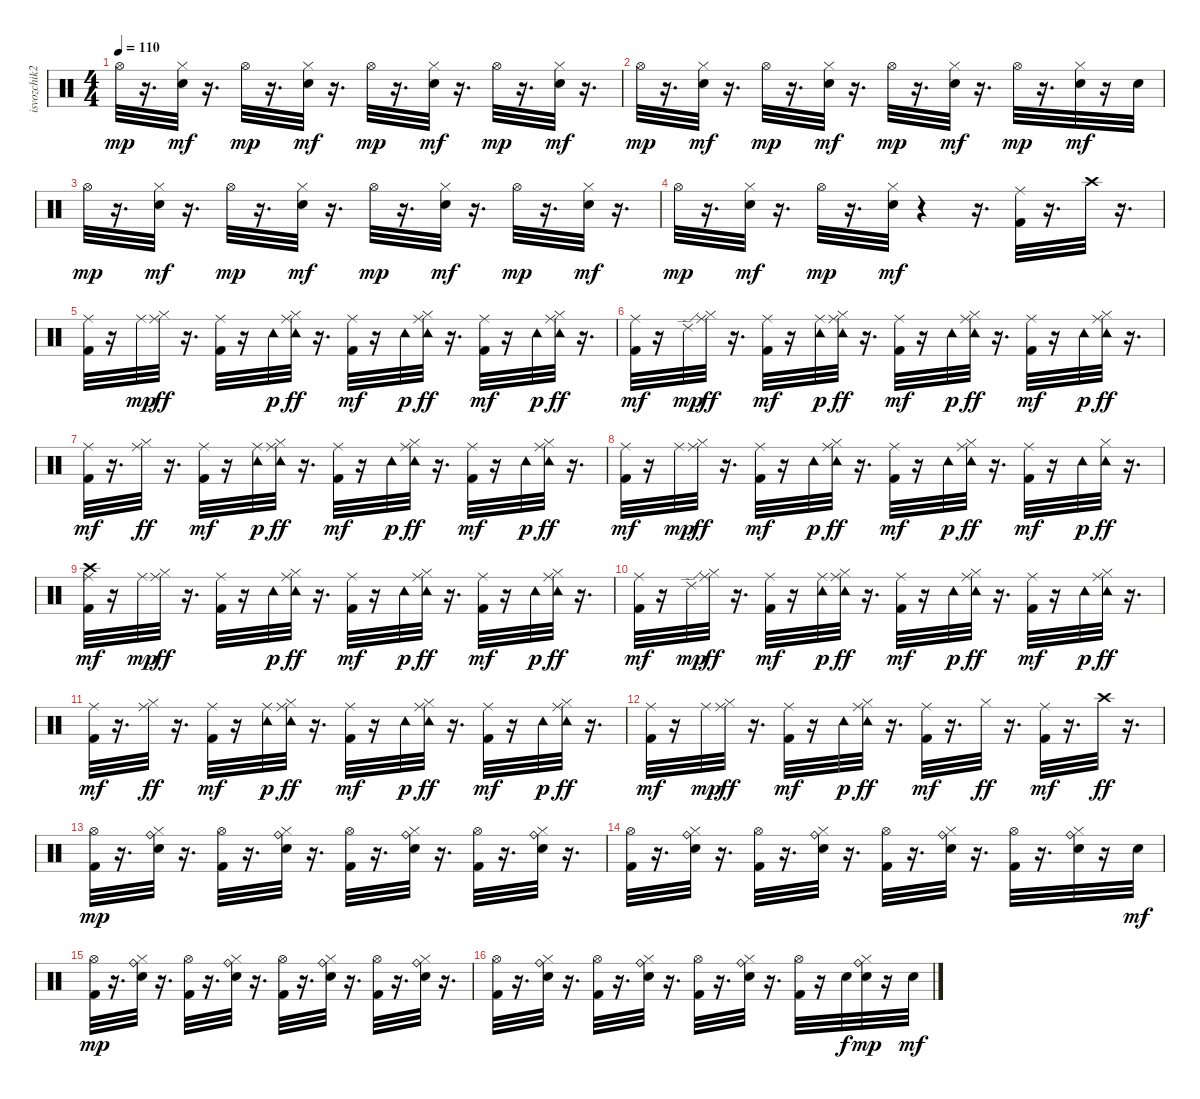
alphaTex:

\track ("isvozchik2" "isvozchik2") {instrument percussion}
\staff {score}
\articulation defaults
\ts (4 4)
\tempo 110
\clef neutral
\ks c "Hi-Hat (open)".32{dy mp}
r.16{d} ("Hand Clap (hit)" "Hi-Hat (closed)").32{dy mf} r.16{d} "Hi-Hat (open)".32{dy mp} r.16{d} ("Hand Clap (hit)" "Hi-Hat (closed)").32{dy mf} r.16{d} "Hi-Hat (open)".32{dy mp} r.16{d} ("Hand Clap (hit)" "Hi-Hat (closed)").32{dy mf} r.16{d} "Hi-Hat (open)".32{dy mp} r.16{d} ("Hand Clap (hit)" "Hi-Hat (closed)").32{dy mf} r.16{d} |
"Hi-Hat (open)".32{dy mp} r.16{d} ("Hand Clap (hit)" "Hi-Hat (closed)").32{dy mf} r.16{d} "Hi-Hat (open)".32{dy mp} r.16{d} ("Hand Clap (hit)" "Hi-Hat (closed)").32{dy mf} r.16{d} "Hi-Hat (open)".32{dy mp} r.16{d} ("Hand Clap (hit)" "Hi-Hat (closed)").32{dy mf} r.16{d} "Hi-Hat (open)".32{dy mp} r.16{d} ("Hand Clap (hit)" "Hi-Hat (closed)").32{dy mf} r.16 "Hand Clap (hit)".32 |
"Hi-Hat (open)".32{dy mp} r.16{d} ("Hand Clap (hit)" "Hi-Hat (closed)").32{dy mf} r.16{d} "Hi-Hat (open)".32{dy mp} r.16{d} ("Hand Clap (hit)" "Hi-Hat (closed)").32{dy mf} r.16{d} "Hi-Hat (open)".32{dy mp} r.16{d} ("Hand Clap (hit)" "Hi-Hat (closed)").32{dy mf} r.16{d} "Hi-Hat (open)".32{dy mp} r.16{d} ("Hand Clap (hit)" "Hi-Hat (closed)").32{dy mf} r.16{d} |
"Hi-Hat (open)".32{dy mp} r.16{d} ("Hand Clap (hit)" "Hi-Hat (closed)").32{dy mf} r.16{d} "Hi-Hat (open)".32{dy mp} r.16{d} ("Hand Clap (hit)" "Hi-Hat (closed)").32{dy mf} r.4 r.16{d} ("Kick (hit) 2" "Ride (middle)").32 r.16{d} "Crash high (hit)".32 r.16{d} |
("Kick (hit) 2" "Ride (middle)").32 r.16 "Ride (middle)".32{dy mp} ("Ride (middle)" "Hi-Hat (closed)").32{dy ff} r.16{d} ("Kick (hit) 2" "Ride (middle)").32 r.16 "Tambourine (hit)".32{dy p} ("Ride (middle)" "Tambourine (hit)" "Hi-Hat (closed)").32{dy ff} r.16{d} ("Kick (hit) 2" "Ride (middle)").32{dy mf} r.16 "Tambourine (hit)".32{dy p} ("Ride (middle)" "Tambourine (hit)" "Hi-Hat (closed)").32{dy ff} r.16{d} ("Kick (hit) 2" "Ride (middle)").32{dy mf} r.16 "Tambourine (hit)".32{dy p} ("Ride (middle)" "Tambourine (hit)" "Hi-Hat (closed)").32{dy ff} r.16{d} |
("Kick (hit) 2" "Ride (middle)").32{dy mf} r.16 "Ride (edge) 2".32{dy mp} ("Ride (middle)" "Hi-Hat (closed)").32{dy ff} r.16{d} ("Kick (hit) 2" "Ride (middle)").32{dy mf} r.16 ("Ride (middle)" "Tambourine (hit)").32{dy p} ("Ride (middle)" "Tambourine (hit)" "Hi-Hat (closed)").32{dy ff} r.16{d} ("Kick (hit) 2" "Ride (middle)").32{dy mf} r.16 "Tambourine (hit)".32{dy p} ("Ride (middle)" "Tambourine (hit)" "Hi-Hat (closed)").32{dy ff} r.16{d} ("Kick (hit) 2" "Ride (middle)").32{dy mf} r.16 "Tambourine (hit)".32{dy p} ("Ride (middle)" "Tambourine (hit)" "Hi-Hat (closed)").32{dy ff} r.16{d} |
("Kick (hit) 2" "Ride (middle)").32{dy mf} r.16{d} ("Ride (middle)" "Hi-Hat (closed)").32{dy ff} r.16{d} ("Kick (hit) 2" "Ride (middle)").32{dy mf} r.16 ("Ride (middle)" "Tambourine (hit)").32{dy p} ("Ride (middle)" "Tambourine (hit)" "Hi-Hat (closed)").32{dy ff} r.16{d} ("Kick (hit) 2" "Ride (middle)").32{dy mf} r.16 "Tambourine (hit)".32{dy p} ("Ride (middle)" "Tambourine (hit)" "Hi-Hat (closed)").32{dy ff} r.16{d} ("Kick (hit) 2" "Ride (middle)").32{dy mf} r.16 "Tambourine (hit)".32{dy p} ("Ride (middle)" "Tambourine (hit)" "Hi-Hat (closed)").32{dy ff} r.16{d} |
("Kick (hit) 2" "Ride (middle)").32{dy mf} r.16 "Ride (middle)".32{dy mp} ("Ride (middle)" "Hi-Hat (closed)").32{dy ff} r.16{d} ("Kick (hit) 2" "Ride (middle)").32{dy mf} r.16 "Tambourine (hit)".32{dy p} ("Ride (middle)" "Tambourine (hit)" "Hi-Hat (closed)").32{dy ff} r.16{d} ("Kick (hit) 2" "Ride (middle)").32{dy mf} r.16 "Tambourine (hit)".32{dy p} ("Ride (middle)" "Tambourine (hit)" "Hi-Hat (closed)").32{dy ff} r.16{d} ("Kick (hit) 2" "Ride (middle)").32{dy mf} r.16 "Tambourine (hit)".32{dy p} ("Tambourine (hit)" "Hi-Hat (closed)").32{dy ff} r.16{d} |
("Crash high (hit)" "Kick (hit) 2" "Ride (middle)").32{dy mf} r.16 "Ride (middle)".32{dy mp} ("Ride (middle)" "Hi-Hat (closed)").32{dy ff} r.16{d} ("Kick (hit) 2" "Ride (middle)").32 r.16 "Tambourine (hit)".32{dy p} ("Ride (middle)" "Tambourine (hit)" "Hi-Hat (closed)").32{dy ff} r.16{d} ("Kick (hit) 2" "Ride (middle)").32{dy mf} r.16 "Tambourine (hit)".32{dy p} ("Ride (middle)" "Tambourine (hit)" "Hi-Hat (closed)").32{dy ff} r.16{d} ("Kick (hit) 2" "Ride (middle)").32{dy mf} r.16 "Tambourine (hit)".32{dy p} ("Ride (middle)" "Tambourine (hit)" "Hi-Hat (closed)").32{dy ff} r.16{d} |
("Kick (hit) 2" "Ride (middle)").32{dy mf} r.16 "Ride (edge) 2".32{dy mp} ("Ride (middle)" "Hi-Hat (closed)").32{dy ff} r.16{d} ("Kick (hit) 2" "Ride (middle)").32{dy mf} r.16 ("Ride (middle)" "Tambourine (hit)").32{dy p} ("Ride (middle)" "Tambourine (hit)" "Hi-Hat (closed)").32{dy ff} r.16{d} ("Kick (hit) 2" "Ride (middle)").32{dy mf} r.16 "Tambourine (hit)".32{dy p} ("Ride (middle)" "Tambourine (hit)" "Hi-Hat (closed)").32{dy ff} r.16{d} ("Kick (hit) 2" "Ride (middle)").32{dy mf} r.16 "Tambourine (hit)".32{dy p} ("Ride (middle)" "Tambourine (hit)" "Hi-Hat (closed)").32{dy ff} r.16{d} |
("Kick (hit) 2" "Ride (middle)").32{dy mf} r.16{d} ("Ride (middle)" "Hi-Hat (closed)").32{dy ff} r.16{d} ("Kick (hit) 2" "Ride (middle)").32{dy mf} r.16 ("Ride (middle)" "Tambourine (hit)").32{dy p} ("Ride (middle)" "Tambourine (hit)" "Hi-Hat (closed)").32{dy ff} r.16{d} ("Kick (hit) 2" "Ride (middle)").32{dy mf} r.16 "Tambourine (hit)".32{dy p} ("Ride (middle)" "Tambourine (hit)" "Hi-Hat (closed)").32{dy ff} r.16{d} ("Kick (hit) 2" "Ride (middle)").32{dy mf} r.16 "Tambourine (hit)".32{dy p} ("Ride (middle)" "Tambourine (hit)" "Hi-Hat (closed)").32{dy ff} r.16{d} |
("Kick (hit) 2" "Ride (middle)").32{dy mf} r.16 "Ride (middle)".32{dy mp} ("Ride (middle)" "Hi-Hat (closed)").32{dy ff} r.16{d} ("Kick (hit) 2" "Ride (middle)").32{dy mf} r.16 "Tambourine (hit)".32{dy p} ("Ride (middle)" "Tambourine (hit)" "Hi-Hat (closed)").32{dy ff} r.16{d} ("Kick (hit) 2" "Ride (middle)").32{dy mf} r.16{d} "Hi-Hat (closed)".32{dy ff} r.16{d} ("Kick (hit) 2" "Ride (middle)").32{dy mf} r.16{d} "Crash high (hit)".32{dy ff} r.16{d} |
("Kick (hit) 2" "Hi-Hat (open)").32{dy mp} r.16{d} ("Hand Clap (hit)" "Hi-Hat (closed)" "Ride (bell)").32 r.16{d} ("Kick (hit) 2" "Hi-Hat (open)").32 r.16{d} ("Hand Clap (hit)" "Hi-Hat (closed)" "Ride (bell)").32 r.16{d} ("Kick (hit) 2" "Hi-Hat (open)").32 r.16{d} ("Hand Clap (hit)" "Hi-Hat (closed)" "Ride (bell)").32 r.16{d} ("Kick (hit) 2" "Hi-Hat (open)").32 r.16{d} ("Hand Clap (hit)" "Hi-Hat (closed)" "Ride (bell)").32 r.16{d} |
("Kick (hit) 2" "Hi-Hat (open)").32 r.16{d} ("Hand Clap (hit)" "Hi-Hat (closed)" "Ride (bell)").32 r.16{d} ("Kick (hit) 2" "Hi-Hat (open)").32 r.16{d} ("Hand Clap (hit)" "Hi-Hat (closed)" "Ride (bell)").32 r.16{d} ("Kick (hit) 2" "Hi-Hat (open)").32 r.16{d} ("Hand Clap (hit)" "Hi-Hat (closed)" "Ride (bell)").32 r.16{d} ("Kick (hit) 2" "Hi-Hat (open)").32 r.16{d} ("Hand Clap (hit)" "Hi-Hat (closed)" "Ride (bell)").32 r.16 "Hand Clap (hit)".32{dy mf} |
("Kick (hit) 2" "Hi-Hat (open)").32{dy mp} r.16{d} ("Hand Clap (hit)" "Hi-Hat (closed)" "Ride (bell)").32 r.16{d} ("Kick (hit) 2" "Hi-Hat (open)").32 r.16{d} ("Hand Clap (hit)" "Hi-Hat (closed)" "Ride (bell)").32 r.16{d} ("Kick (hit) 2" "Hi-Hat (open)").32 r.16{d} ("Hand Clap (hit)" "Hi-Hat (closed)" "Ride (bell)").32 r.16{d} ("Kick (hit) 2" "Hi-Hat (open)").32 r.16{d} ("Hand Clap (hit)" "Hi-Hat (closed)" "Ride (bell)").32 r.16{d} |
("Kick (hit) 2" "Hi-Hat (open)").32 r.16{d} ("Hand Clap (hit)" "Hi-Hat (closed)" "Ride (bell)").32 r.16{d} ("Kick (hit) 2" "Hi-Hat (open)").32 r.16{d} ("Hand Clap (hit)" "Hi-Hat (closed)" "Ride (bell)").32 r.16{d} ("Kick (hit) 2" "Hi-Hat (open)").32 r.16{d} ("Hand Clap (hit)" "Hi-Hat (closed)" "Ride (bell)").32 r.16{d} ("Kick (hit) 2" "Hi-Hat (open)").32 r.16 "Hand Clap (hit)".32{dy f} ("Hand Clap (hit)" "Hi-Hat (closed)" "Ride (bell)").32{dy mp} r.16 "Hand Clap (hit)".32{dy mf}
